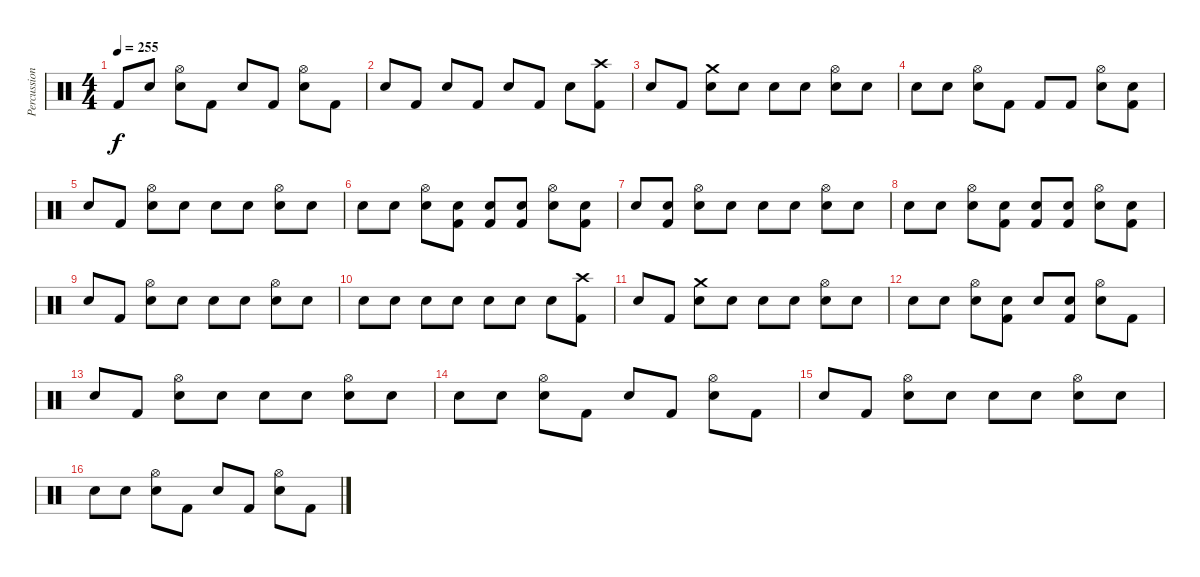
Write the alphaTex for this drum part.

\track ("Percussion" "Percussion") {instrument percussion}
\staff {score}
\articulation defaults
\ts (4 4)
\tempo 255
\clef neutral
\ks c "Kick (hit) 2".8{dy f} "Snare (hit)".8
("Snare (hit) 2" "Hi-Hat (open)").8 "Kick (hit) 2".8 "Snare (hit)".8 "Kick (hit) 2".8 ("Snare (hit) 2" "Hi-Hat (open)").8 "Kick (hit) 2".8 |
"Snare (hit) 2".8 "Kick (hit) 2".8 "Snare (hit) 2".8 "Kick (hit) 2".8 "Snare (hit) 2".8 "Kick (hit) 2".8 "Snare (hit) 2".8 ("Kick (hit) 2" "Crash high (hit)").8 |
"Snare (hit)".8 "Kick (hit) 2".8 ("Snare (hit) 2" "Crash medium (hit)").8 "Snare (hit)".8 "Snare (hit)".8 "Snare (hit)".8 ("Snare (hit) 2" "Hi-Hat (open)").8 "Snare (hit)".8 |
"Snare (hit)".8 "Snare (hit)".8 ("Snare (hit) 2" "Hi-Hat (open)").8 "Kick (hit) 2".8 "Kick (hit) 2".8 "Kick (hit) 2".8 ("Snare (hit) 2" "Hi-Hat (open)").8 ("Kick (hit) 2" "Snare (hit)").8 |
"Snare (hit)".8 "Kick (hit) 2".8 ("Snare (hit) 2" "Hi-Hat (open)").8 "Snare (hit)".8 "Snare (hit)".8 "Snare (hit)".8 ("Snare (hit) 2" "Hi-Hat (open)").8 "Snare (hit)".8 |
"Snare (hit)".8 "Snare (hit)".8 ("Snare (hit) 2" "Hi-Hat (open)").8 ("Kick (hit) 2" "Snare (hit)").8 ("Kick (hit) 2" "Snare (hit)").8 ("Kick (hit) 2" "Snare (hit)").8 ("Snare (hit) 2" "Hi-Hat (open)").8 ("Kick (hit) 2" "Snare (hit)").8 |
"Snare (hit)".8 ("Kick (hit) 2" "Snare (hit)").8 ("Snare (hit) 2" "Hi-Hat (open)").8 "Snare (hit)".8 "Snare (hit)".8 "Snare (hit)".8 ("Snare (hit) 2" "Hi-Hat (open)").8 "Snare (hit)".8 |
"Snare (hit)".8 "Snare (hit)".8 ("Snare (hit) 2" "Hi-Hat (open)").8 ("Kick (hit) 2" "Snare (hit)").8 ("Kick (hit) 2" "Snare (hit)").8 ("Kick (hit) 2" "Snare (hit)").8 ("Snare (hit) 2" "Hi-Hat (open)").8 ("Kick (hit) 2" "Snare (hit)").8 |
"Snare (hit)".8 "Kick (hit) 2".8 ("Snare (hit) 2" "Hi-Hat (open)").8 "Snare (hit) 2".8 "Snare (hit) 2".8 "Snare (hit) 2".8 ("Snare (hit) 2" "Hi-Hat (open)").8 "Snare (hit) 2".8 |
"Snare (hit) 2".8 "Snare (hit) 2".8 "Snare (hit) 2".8 "Snare (hit) 2".8 "Snare (hit) 2".8 "Snare (hit) 2".8 "Snare (hit) 2".8 ("Kick (hit) 2" "Crash high (hit)").8 |
"Snare (hit)".8 "Kick (hit) 2".8 ("Snare (hit) 2" "Crash medium (hit)").8 "Snare (hit)".8 "Snare (hit)".8 "Snare (hit)".8 ("Snare (hit) 2" "Hi-Hat (open)").8 "Snare (hit)".8 |
"Snare (hit)".8 "Snare (hit)".8 ("Snare (hit) 2" "Hi-Hat (open)").8 ("Kick (hit) 2" "Snare (hit)").8 "Snare (hit)".8 ("Kick (hit) 2" "Snare (hit)").8 ("Snare (hit) 2" "Hi-Hat (open)").8 "Kick (hit) 2".8 |
"Snare (hit)".8 "Kick (hit) 2".8 ("Snare (hit) 2" "Hi-Hat (open)").8 "Snare (hit)".8 "Snare (hit)".8 "Snare (hit)".8 ("Snare (hit) 2" "Hi-Hat (open)").8 "Snare (hit)".8 |
"Snare (hit)".8 "Snare (hit)".8 ("Snare (hit) 2" "Hi-Hat (open)").8 "Kick (hit) 2".8 "Snare (hit)".8 "Kick (hit) 2".8 ("Snare (hit) 2" "Hi-Hat (open)").8 "Kick (hit) 2".8 |
"Snare (hit)".8 "Kick (hit) 2".8 ("Snare (hit) 2" "Hi-Hat (open)").8 "Snare (hit)".8 "Snare (hit)".8 "Snare (hit)".8 ("Snare (hit) 2" "Hi-Hat (open)").8 "Snare (hit)".8 |
"Snare (hit)".8 "Snare (hit)".8 ("Snare (hit) 2" "Hi-Hat (open)").8 "Kick (hit) 2".8 "Snare (hit)".8 "Kick (hit) 2".8 ("Snare (hit) 2" "Hi-Hat (open)").8 "Kick (hit) 2".8
